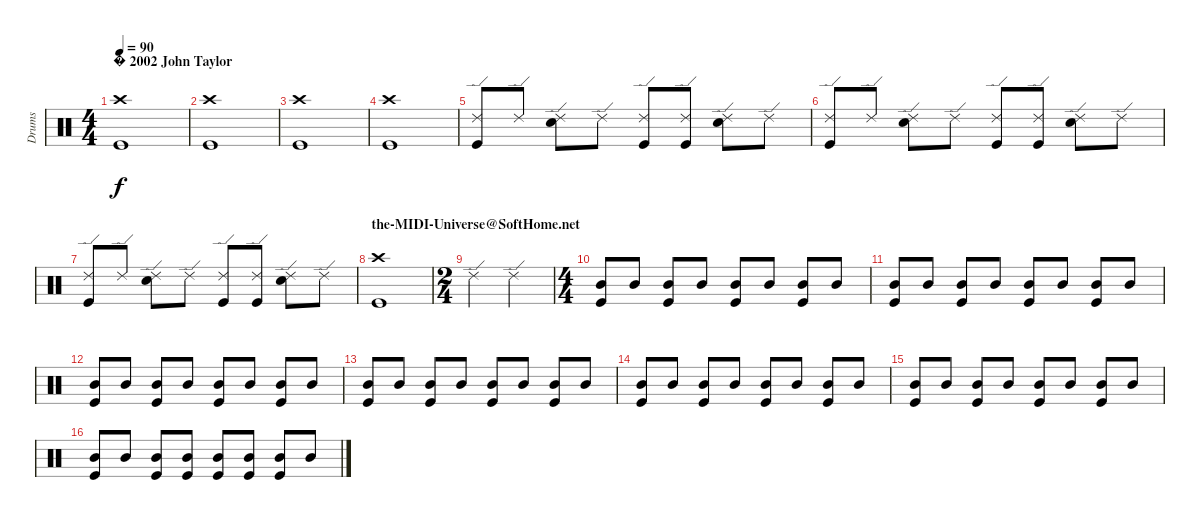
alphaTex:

\track ("Drums" "Drums") {instrument percussion}
\staff {score}
\articulation defaults
\ts (4 4)
\section ("" "� 2002 John Taylor")
\tempo 90
\clef neutral
\ks c
("Crash high (hit)" "Kick (hit)").1{dy f} |
("Crash high (hit)" "Kick (hit)").1 |
("Crash high (hit)" "Kick (hit)").1 |
("Crash high (hit)" "Kick (hit)").1 |
("Ride (edge) 2" "Kick (hit)").8 "Ride (edge) 2".8 ("Ride (edge) 2" "Snare (hit) 2").8 "Ride (edge) 2".8 ("Ride (edge) 2" "Kick (hit)").8 ("Ride (edge) 2" "Kick (hit)").8 ("Ride (edge) 2" "Snare (hit) 2").8 "Ride (edge) 2".8 |
("Ride (edge) 2" "Kick (hit)").8 "Ride (edge) 2".8 ("Ride (edge) 2" "Snare (hit) 2").8 "Ride (edge) 2".8 ("Ride (edge) 2" "Kick (hit)").8 ("Ride (edge) 2" "Kick (hit)").8 ("Ride (edge) 2" "Snare (hit) 2").8 "Ride (edge) 2".8 |
("Ride (edge) 2" "Kick (hit)").8 "Ride (edge) 2".8 ("Ride (edge) 2" "Snare (hit) 2").8 "Ride (edge) 2".8 ("Ride (edge) 2" "Kick (hit)").8 ("Ride (edge) 2" "Kick (hit)").8 ("Ride (edge) 2" "Snare (hit) 2").8 "Ride (edge) 2".8 |
\section ("" "the-MIDI-Universe@SoftHome.net")
("Crash high (hit)" "Kick (hit)").1 |
\ts (2 4)
"Ride (edge) 2".4 "Ride (edge) 2".4 |
\ts (4 4)
("Mid Tom (hit)" "Kick (hit)").8 "Mid Tom (hit)".8 ("Mid Tom (hit)" "Kick (hit)").8 "Mid Tom (hit)".8 ("Mid Tom (hit)" "Kick (hit)").8 "Mid Tom (hit)".8 ("Mid Tom (hit)" "Kick (hit)").8 "Mid Tom (hit)".8 |
("Mid Tom (hit)" "Kick (hit)").8 "Mid Tom (hit)".8 ("Mid Tom (hit)" "Kick (hit)").8 "Mid Tom (hit)".8 ("Mid Tom (hit)" "Kick (hit)").8 "Mid Tom (hit)".8 ("Mid Tom (hit)" "Kick (hit)").8 "Mid Tom (hit)".8 |
("Mid Tom (hit)" "Kick (hit)").8 "Mid Tom (hit)".8 ("Mid Tom (hit)" "Kick (hit)").8 "Mid Tom (hit)".8 ("Mid Tom (hit)" "Kick (hit)").8 "Mid Tom (hit)".8 ("Mid Tom (hit)" "Kick (hit)").8 "Mid Tom (hit)".8 |
("Mid Tom (hit)" "Kick (hit)").8 "Mid Tom (hit)".8 ("Mid Tom (hit)" "Kick (hit)").8 "Mid Tom (hit)".8 ("Mid Tom (hit)" "Kick (hit)").8 "Mid Tom (hit)".8 ("Mid Tom (hit)" "Kick (hit)").8 "Mid Tom (hit)".8 |
("Mid Tom (hit)" "Kick (hit)").8 "Mid Tom (hit)".8 ("Mid Tom (hit)" "Kick (hit)").8 "Mid Tom (hit)".8 ("Mid Tom (hit)" "Kick (hit)").8 "Mid Tom (hit)".8 ("Mid Tom (hit)" "Kick (hit)").8 "Mid Tom (hit)".8 |
("Mid Tom (hit)" "Kick (hit)").8 "Mid Tom (hit)".8 ("Mid Tom (hit)" "Kick (hit)").8 "Mid Tom (hit)".8 ("Mid Tom (hit)" "Kick (hit)").8 "Mid Tom (hit)".8 ("Mid Tom (hit)" "Kick (hit)").8 "Mid Tom (hit)".8 |
("Mid Tom (hit)" "Kick (hit)").8 "Mid Tom (hit)".8 ("Mid Tom (hit)" "Kick (hit)").8 ("Mid Tom (hit)" "Kick (hit)").8 ("Mid Tom (hit)" "Kick (hit)").8 ("Mid Tom (hit)" "Kick (hit)").8 ("Mid Tom (hit)" "Kick (hit)").8 "Mid Tom (hit)".8
